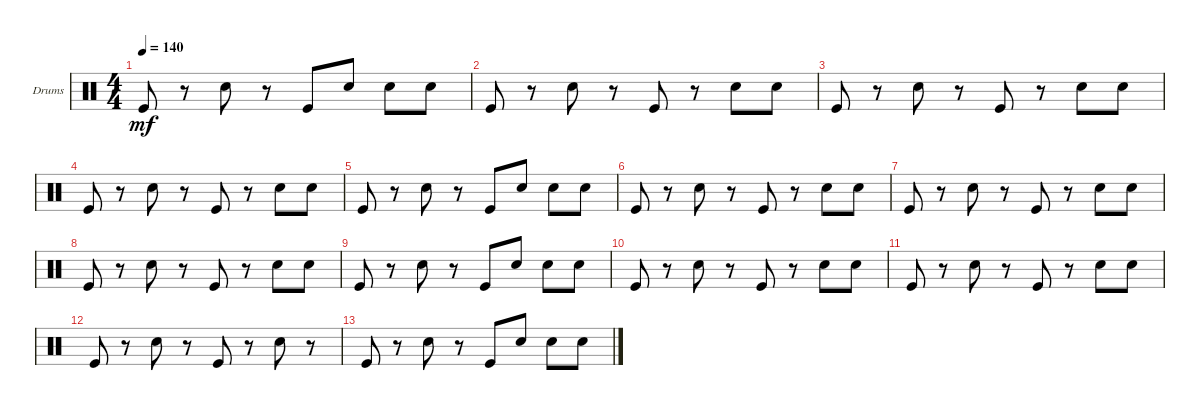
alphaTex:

\defaultSystemsLayout 4
\bracketExtendMode groupsimilarinstruments
\firstSystemTrackNameOrientation horizontal
\otherSystemsTrackNameOrientation horizontal
\track ("Drumkit" "Drums") {instrument percussion}
\staff {score}
\articulation defaults
\ts (4 4)
\tempo 140
\clef neutral
\ks c "Kick (hit)".8{dy mf}
r.8 "Snare (hit) 2".8 r.8 "Kick (hit)".8 "Snare (hit) 2".8 "Snare (hit) 2".8 "Snare (hit) 2".8 |
"Kick (hit)".8 r.8 "Snare (hit) 2".8 r.8 "Kick (hit)".8 r.8 "Snare (hit) 2".8 "Snare (hit) 2".8 |
"Kick (hit)".8 r.8 "Snare (hit) 2".8 r.8 "Kick (hit)".8 r.8 "Snare (hit) 2".8 "Snare (hit) 2".8 |
"Kick (hit)".8 r.8 "Snare (hit) 2".8 r.8 "Kick (hit)".8 r.8 "Snare (hit) 2".8 "Snare (hit) 2".8 |
"Kick (hit)".8 r.8 "Snare (hit) 2".8 r.8 "Kick (hit)".8 "Snare (hit) 2".8 "Snare (hit) 2".8 "Snare (hit) 2".8 |
"Kick (hit)".8 r.8 "Snare (hit) 2".8 r.8 "Kick (hit)".8 r.8 "Snare (hit) 2".8 "Snare (hit) 2".8 |
"Kick (hit)".8 r.8 "Snare (hit) 2".8 r.8 "Kick (hit)".8 r.8 "Snare (hit) 2".8 "Snare (hit) 2".8 |
"Kick (hit)".8 r.8 "Snare (hit) 2".8 r.8 "Kick (hit)".8 r.8 "Snare (hit) 2".8 "Snare (hit) 2".8 |
"Kick (hit)".8 r.8 "Snare (hit) 2".8 r.8 "Kick (hit)".8 "Snare (hit) 2".8 "Snare (hit) 2".8 "Snare (hit) 2".8 |
"Kick (hit)".8 r.8 "Snare (hit) 2".8 r.8 "Kick (hit)".8 r.8 "Snare (hit) 2".8 "Snare (hit) 2".8 |
"Kick (hit)".8 r.8 "Snare (hit) 2".8 r.8 "Kick (hit)".8 r.8 "Snare (hit) 2".8 "Snare (hit) 2".8 |
"Kick (hit)".8 r.8 "Snare (hit) 2".8 r.8 "Kick (hit)".8 r.8 "Snare (hit) 2".8 r.8 |
"Kick (hit)".8 r.8 "Snare (hit) 2".8 r.8 "Kick (hit)".8 "Snare (hit) 2".8 "Snare (hit) 2".8 "Snare (hit) 2".8
